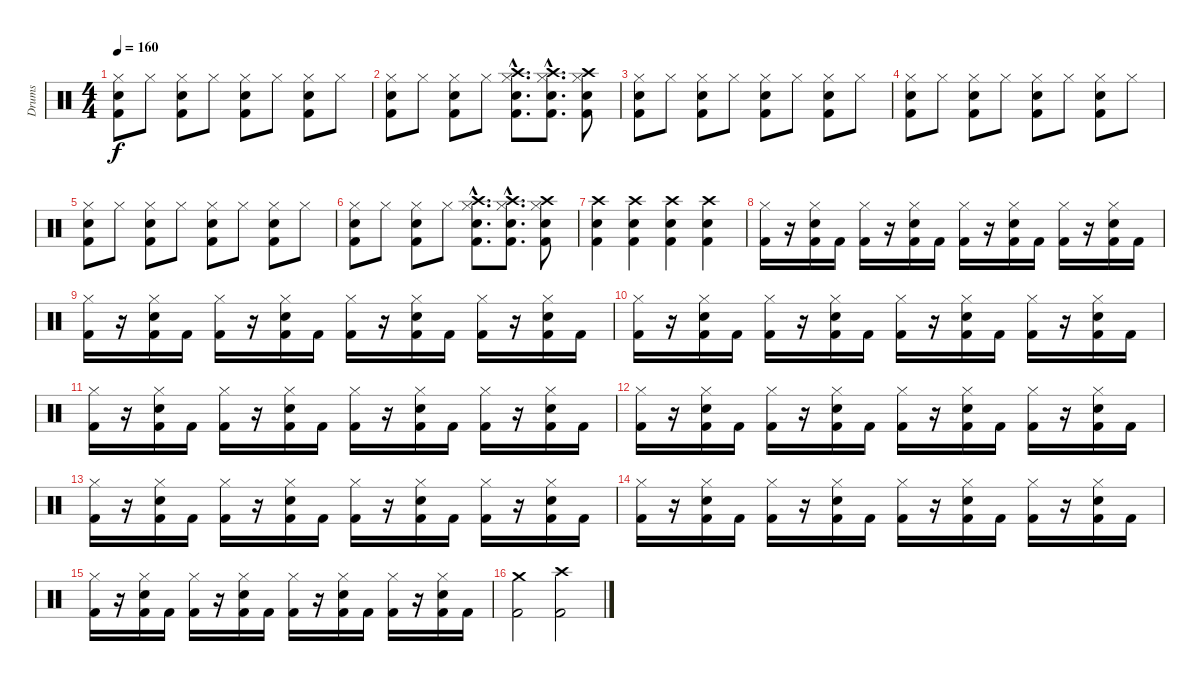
\track ("Drums" "Drums") {instrument percussion}
\staff {score}
\articulation defaults
\ts (4 4)
\tempo 160
\clef neutral
\ks c
("Hi-Hat (closed)" "Kick (hit) 2" "Electric Snare (hit)").8{dy f} "Hi-Hat (closed)".8 ("Hi-Hat (closed)" "Kick (hit) 2" "Electric Snare (hit)").8 "Hi-Hat (closed)".8 ("Hi-Hat (closed)" "Kick (hit) 2" "Electric Snare (hit)").8 "Hi-Hat (closed)".8 ("Hi-Hat (closed)" "Kick (hit) 2" "Electric Snare (hit)").8 "Hi-Hat (closed)".8 |
("Hi-Hat (closed)" "Kick (hit) 2" "Electric Snare (hit)").8 "Hi-Hat (closed)".8 ("Hi-Hat (closed)" "Kick (hit) 2" "Electric Snare (hit)").8 "Hi-Hat (closed)".8 ("Hi-Hat (closed)"{hac} "Kick (hit) 2"{hac} "Electric Snare (hit)"{hac} "Crash high (hit)"{hac}).8{d} ("Hi-Hat (closed)"{hac} "Kick (hit) 2"{hac} "Electric Snare (hit)"{hac} "Crash high (hit)"{hac}).8{d} ("Kick (hit) 2" "Hi-Hat (closed)" "Electric Snare (hit)" "Crash high (hit)").8 |
("Hi-Hat (closed)" "Kick (hit) 2" "Electric Snare (hit)").8 "Hi-Hat (closed)".8 ("Hi-Hat (closed)" "Kick (hit) 2" "Electric Snare (hit)").8 "Hi-Hat (closed)".8 ("Hi-Hat (closed)" "Kick (hit) 2" "Electric Snare (hit)").8 "Hi-Hat (closed)".8 ("Hi-Hat (closed)" "Kick (hit) 2" "Electric Snare (hit)").8 "Hi-Hat (closed)".8 |
("Hi-Hat (closed)" "Kick (hit) 2" "Electric Snare (hit)").8 "Hi-Hat (closed)".8 ("Hi-Hat (closed)" "Kick (hit) 2" "Electric Snare (hit)").8 "Hi-Hat (closed)".8 ("Hi-Hat (closed)" "Kick (hit) 2" "Electric Snare (hit)").8 "Hi-Hat (closed)".8 ("Hi-Hat (closed)" "Kick (hit) 2" "Electric Snare (hit)").8 "Hi-Hat (closed)".8 |
("Hi-Hat (closed)" "Kick (hit) 2" "Electric Snare (hit)").8 "Hi-Hat (closed)".8 ("Hi-Hat (closed)" "Kick (hit) 2" "Electric Snare (hit)").8 "Hi-Hat (closed)".8 ("Hi-Hat (closed)" "Kick (hit) 2" "Electric Snare (hit)").8 "Hi-Hat (closed)".8 ("Hi-Hat (closed)" "Kick (hit) 2" "Electric Snare (hit)").8 "Hi-Hat (closed)".8 |
("Hi-Hat (closed)" "Kick (hit) 2" "Electric Snare (hit)").8 "Hi-Hat (closed)".8 ("Hi-Hat (closed)" "Kick (hit) 2" "Electric Snare (hit)").8 "Hi-Hat (closed)".8 ("Hi-Hat (closed)"{hac} "Kick (hit) 2"{hac} "Electric Snare (hit)"{hac} "Crash high (hit)"{hac}).8{d} ("Hi-Hat (closed)"{hac} "Kick (hit) 2"{hac} "Electric Snare (hit)"{hac} "Crash high (hit)"{hac}).8{d} ("Kick (hit) 2" "Hi-Hat (closed)" "Electric Snare (hit)" "Crash high (hit)").8 |
("Electric Snare (hit)" "Kick (hit) 2" "Crash high (hit)").4 ("Electric Snare (hit)" "Kick (hit) 2" "Crash high (hit)").4 ("Electric Snare (hit)" "Kick (hit) 2" "Crash high (hit)").4 ("Electric Snare (hit)" "Kick (hit) 2" "Crash high (hit)").4 |
("Kick (hit) 2" "Hi-Hat (closed)").16 r.16 ("Kick (hit) 2" "Hi-Hat (closed)" "Electric Snare (hit)").16 "Kick (hit) 2".16 ("Kick (hit) 2" "Hi-Hat (closed)").16 r.16 ("Kick (hit) 2" "Hi-Hat (closed)" "Electric Snare (hit)").16 "Kick (hit) 2".16 ("Kick (hit) 2" "Hi-Hat (closed)").16 r.16 ("Kick (hit) 2" "Hi-Hat (closed)" "Electric Snare (hit)").16 "Kick (hit) 2".16 ("Kick (hit) 2" "Hi-Hat (closed)").16 r.16 ("Kick (hit) 2" "Hi-Hat (closed)" "Electric Snare (hit)").16 "Kick (hit) 2".16 |
("Kick (hit) 2" "Hi-Hat (closed)").16 r.16 ("Kick (hit) 2" "Hi-Hat (closed)" "Electric Snare (hit)").16 "Kick (hit) 2".16 ("Kick (hit) 2" "Hi-Hat (closed)").16 r.16 ("Kick (hit) 2" "Hi-Hat (closed)" "Electric Snare (hit)").16 "Kick (hit) 2".16 ("Kick (hit) 2" "Hi-Hat (closed)").16 r.16 ("Kick (hit) 2" "Hi-Hat (closed)" "Electric Snare (hit)").16 "Kick (hit) 2".16 ("Kick (hit) 2" "Hi-Hat (closed)").16 r.16 ("Kick (hit) 2" "Hi-Hat (closed)" "Electric Snare (hit)").16 "Kick (hit) 2".16 |
("Kick (hit) 2" "Hi-Hat (closed)").16 r.16 ("Kick (hit) 2" "Hi-Hat (closed)" "Electric Snare (hit)").16 "Kick (hit) 2".16 ("Kick (hit) 2" "Hi-Hat (closed)").16 r.16 ("Kick (hit) 2" "Hi-Hat (closed)" "Electric Snare (hit)").16 "Kick (hit) 2".16 ("Kick (hit) 2" "Hi-Hat (closed)").16 r.16 ("Kick (hit) 2" "Hi-Hat (closed)" "Electric Snare (hit)").16 "Kick (hit) 2".16 ("Kick (hit) 2" "Hi-Hat (closed)").16 r.16 ("Kick (hit) 2" "Hi-Hat (closed)" "Electric Snare (hit)").16 "Kick (hit) 2".16 |
("Kick (hit) 2" "Hi-Hat (closed)").16 r.16 ("Kick (hit) 2" "Hi-Hat (closed)" "Electric Snare (hit)").16 "Kick (hit) 2".16 ("Kick (hit) 2" "Hi-Hat (closed)").16 r.16 ("Kick (hit) 2" "Hi-Hat (closed)" "Electric Snare (hit)").16 "Kick (hit) 2".16 ("Kick (hit) 2" "Hi-Hat (closed)").16 r.16 ("Kick (hit) 2" "Hi-Hat (closed)" "Electric Snare (hit)").16 "Kick (hit) 2".16 ("Kick (hit) 2" "Hi-Hat (closed)").16 r.16 ("Kick (hit) 2" "Hi-Hat (closed)" "Electric Snare (hit)").16 "Kick (hit) 2".16 |
("Kick (hit) 2" "Hi-Hat (closed)").16 r.16 ("Kick (hit) 2" "Hi-Hat (closed)" "Electric Snare (hit)").16 "Kick (hit) 2".16 ("Kick (hit) 2" "Hi-Hat (closed)").16 r.16 ("Kick (hit) 2" "Hi-Hat (closed)" "Electric Snare (hit)").16 "Kick (hit) 2".16 ("Kick (hit) 2" "Hi-Hat (closed)").16 r.16 ("Kick (hit) 2" "Hi-Hat (closed)" "Electric Snare (hit)").16 "Kick (hit) 2".16 ("Kick (hit) 2" "Hi-Hat (closed)").16 r.16 ("Kick (hit) 2" "Hi-Hat (closed)" "Electric Snare (hit)").16 "Kick (hit) 2".16 |
("Kick (hit) 2" "Hi-Hat (closed)").16 r.16 ("Kick (hit) 2" "Hi-Hat (closed)" "Electric Snare (hit)").16 "Kick (hit) 2".16 ("Kick (hit) 2" "Hi-Hat (closed)").16 r.16 ("Kick (hit) 2" "Hi-Hat (closed)" "Electric Snare (hit)").16 "Kick (hit) 2".16 ("Kick (hit) 2" "Hi-Hat (closed)").16 r.16 ("Kick (hit) 2" "Hi-Hat (closed)" "Electric Snare (hit)").16 "Kick (hit) 2".16 ("Kick (hit) 2" "Hi-Hat (closed)").16 r.16 ("Kick (hit) 2" "Hi-Hat (closed)" "Electric Snare (hit)").16 "Kick (hit) 2".16 |
("Kick (hit) 2" "Hi-Hat (closed)").16 r.16 ("Kick (hit) 2" "Hi-Hat (closed)" "Electric Snare (hit)").16 "Kick (hit) 2".16 ("Kick (hit) 2" "Hi-Hat (closed)").16 r.16 ("Kick (hit) 2" "Hi-Hat (closed)" "Electric Snare (hit)").16 "Kick (hit) 2".16 ("Kick (hit) 2" "Hi-Hat (closed)").16 r.16 ("Kick (hit) 2" "Hi-Hat (closed)" "Electric Snare (hit)").16 "Kick (hit) 2".16 ("Kick (hit) 2" "Hi-Hat (closed)").16 r.16 ("Kick (hit) 2" "Hi-Hat (closed)" "Electric Snare (hit)").16 "Kick (hit) 2".16 |
("Kick (hit) 2" "Hi-Hat (closed)").16 r.16 ("Kick (hit) 2" "Hi-Hat (closed)" "Electric Snare (hit)").16 "Kick (hit) 2".16 ("Kick (hit) 2" "Hi-Hat (closed)").16 r.16 ("Kick (hit) 2" "Hi-Hat (closed)" "Electric Snare (hit)").16 "Kick (hit) 2".16 ("Kick (hit) 2" "Hi-Hat (closed)").16 r.16 ("Kick (hit) 2" "Hi-Hat (closed)" "Electric Snare (hit)").16 "Kick (hit) 2".16 ("Kick (hit) 2" "Hi-Hat (closed)").16 r.16 ("Kick (hit) 2" "Hi-Hat (closed)" "Electric Snare (hit)").16 "Kick (hit) 2".16 |
("Kick (hit) 2" "Crash medium (hit)").2 ("Kick (hit) 2" "Crash high (hit)").2
